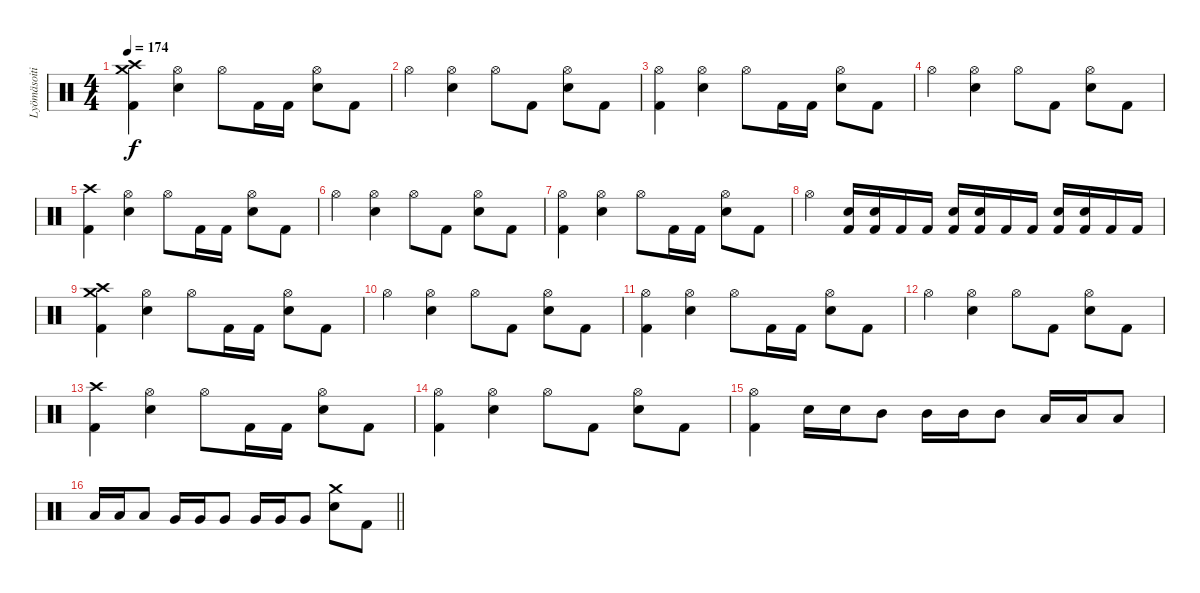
\track ("Lyömäsoitin" "Lyömäsoiti") {instrument percussion}
\staff {score}
\articulation defaults
\ts (4 4)
\section ("" "")
\tempo 174
\clef neutral
\ks c
("Crash medium (hit)" "Crash high (hit)" "Kick (hit) 2").4{dy f} ("Hi-Hat (open)" "Electric Snare (hit)").4 "Hi-Hat (open)".8 "Kick (hit) 2".16 "Kick (hit) 2".16 ("Hi-Hat (open)" "Electric Snare (hit)").8 "Kick (hit) 2".8 |
"Hi-Hat (open)".4 ("Hi-Hat (open)" "Electric Snare (hit)").4 "Hi-Hat (open)".8 "Kick (hit) 2".8 ("Hi-Hat (open)" "Electric Snare (hit)").8 "Kick (hit) 2".8 |
("Hi-Hat (open)" "Kick (hit) 2").4 ("Hi-Hat (open)" "Electric Snare (hit)").4 "Hi-Hat (open)".8 "Kick (hit) 2".16 "Kick (hit) 2".16 ("Hi-Hat (open)" "Electric Snare (hit)").8 "Kick (hit) 2".8 |
"Hi-Hat (open)".4 ("Hi-Hat (open)" "Electric Snare (hit)").4 "Hi-Hat (open)".8 "Kick (hit) 2".8 ("Hi-Hat (open)" "Electric Snare (hit)").8 "Kick (hit) 2".8 |
("Crash high (hit)" "Kick (hit) 2").4 ("Hi-Hat (open)" "Electric Snare (hit)").4 "Hi-Hat (open)".8 "Kick (hit) 2".16 "Kick (hit) 2".16 ("Hi-Hat (open)" "Electric Snare (hit)").8 "Kick (hit) 2".8 |
"Hi-Hat (open)".4 ("Hi-Hat (open)" "Electric Snare (hit)").4 "Hi-Hat (open)".8 "Kick (hit) 2".8 ("Hi-Hat (open)" "Electric Snare (hit)").8 "Kick (hit) 2".8 |
("Hi-Hat (open)" "Kick (hit) 2").4 ("Hi-Hat (open)" "Electric Snare (hit)").4 "Hi-Hat (open)".8 "Kick (hit) 2".16 "Kick (hit) 2".16 ("Hi-Hat (open)" "Electric Snare (hit)").8 "Kick (hit) 2".8 |
"Hi-Hat (open)".4 ("Electric Snare (hit)" "Kick (hit) 2").16 ("Electric Snare (hit)" "Kick (hit) 2").16 "Kick (hit) 2".16 "Kick (hit) 2".16 ("Electric Snare (hit)" "Kick (hit) 2").16 ("Electric Snare (hit)" "Kick (hit) 2").16 "Kick (hit) 2".16 "Kick (hit) 2".16 ("Electric Snare (hit)" "Kick (hit) 2").16 ("Electric Snare (hit)" "Kick (hit) 2").16 "Kick (hit) 2".16 "Kick (hit) 2".16 |
("Crash medium (hit)" "Crash high (hit)" "Kick (hit) 2").4 ("Hi-Hat (open)" "Electric Snare (hit)").4 "Hi-Hat (open)".8 "Kick (hit) 2".16 "Kick (hit) 2".16 ("Hi-Hat (open)" "Electric Snare (hit)").8 "Kick (hit) 2".8 |
"Hi-Hat (open)".4 ("Hi-Hat (open)" "Electric Snare (hit)").4 "Hi-Hat (open)".8 "Kick (hit) 2".8 ("Hi-Hat (open)" "Electric Snare (hit)").8 "Kick (hit) 2".8 |
("Hi-Hat (open)" "Kick (hit) 2").4 ("Hi-Hat (open)" "Electric Snare (hit)").4 "Hi-Hat (open)".8 "Kick (hit) 2".16 "Kick (hit) 2".16 ("Hi-Hat (open)" "Electric Snare (hit)").8 "Kick (hit) 2".8 |
"Hi-Hat (open)".4 ("Hi-Hat (open)" "Electric Snare (hit)").4 "Hi-Hat (open)".8 "Kick (hit) 2".8 ("Hi-Hat (open)" "Electric Snare (hit)").8 "Kick (hit) 2".8 |
("Crash high (hit)" "Kick (hit) 2").4 ("Hi-Hat (open)" "Electric Snare (hit)").4 "Hi-Hat (open)".8 "Kick (hit) 2".16 "Kick (hit) 2".16 ("Hi-Hat (open)" "Electric Snare (hit)").8 "Kick (hit) 2".8 |
("Hi-Hat (open)" "Kick (hit) 2").4 ("Hi-Hat (open)" "Electric Snare (hit)").4 "Hi-Hat (open)".8 "Kick (hit) 2".8 ("Hi-Hat (open)" "Electric Snare (hit)").8 "Kick (hit) 2".8 |
("Hi-Hat (open)" "Kick (hit) 2").4 "Electric Snare (hit)".16 "Electric Snare (hit)".16 "Mid Tom (hit)".8 "Mid Tom (hit)".16 "Mid Tom (hit)".16 "Mid Tom (hit)".8 "Low Tom (hit)".16 "Low Tom (hit)".16 "Low Tom (hit)".8 |
\barLineRight lightlight "Low Tom (hit)".16 "Low Tom (hit)".16 "Low Tom (hit)".8 "Very Low Tom (hit)".16 "Very Low Tom (hit)".16 "Very Low Tom (hit)".8 "Very Low Tom (hit)".16 "Very Low Tom (hit)".16 "Very Low Tom (hit)".8
("Crash medium (hit)" "Electric Snare (hit)").8 "Kick (hit) 2".8
